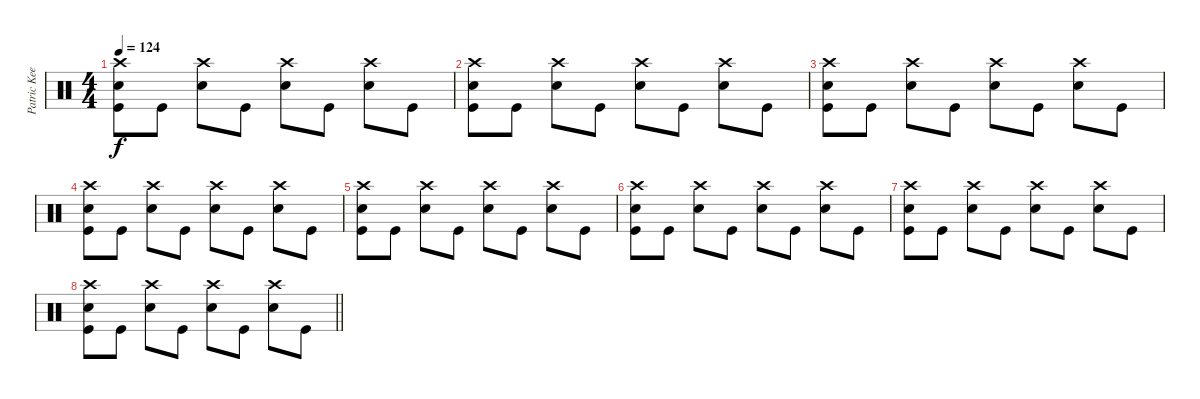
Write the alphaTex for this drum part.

\track ("Patric Keeler (Drums)" "Patric Kee") {instrument percussion}
\staff {score}
\articulation defaults
\ts (4 4)
\tempo 124
\clef neutral
\ks c
("Crash high (hit)" "Snare (hit) 2" "Kick (hit)").8{dy f} "Kick (hit)".8 ("Crash high (hit)" "Snare (hit) 2").8 "Kick (hit)".8 ("Crash high (hit)" "Snare (hit) 2").8 "Kick (hit)".8 ("Crash high (hit)" "Snare (hit) 2").8 "Kick (hit)".8 |
("Crash high (hit)" "Snare (hit) 2" "Kick (hit)").8 "Kick (hit)".8 ("Crash high (hit)" "Snare (hit) 2").8 "Kick (hit)".8 ("Crash high (hit)" "Snare (hit) 2").8 "Kick (hit)".8 ("Crash high (hit)" "Snare (hit) 2").8 "Kick (hit)".8 |
("Crash high (hit)" "Snare (hit) 2" "Kick (hit)").8 "Kick (hit)".8 ("Crash high (hit)" "Snare (hit) 2").8 "Kick (hit)".8 ("Crash high (hit)" "Snare (hit) 2").8 "Kick (hit)".8 ("Crash high (hit)" "Snare (hit) 2").8 "Kick (hit)".8 |
("Crash high (hit)" "Snare (hit) 2" "Kick (hit)").8 "Kick (hit)".8 ("Crash high (hit)" "Snare (hit) 2").8 "Kick (hit)".8 ("Crash high (hit)" "Snare (hit) 2").8 "Kick (hit)".8 ("Crash high (hit)" "Snare (hit) 2").8 "Kick (hit)".8 |
("Crash high (hit)" "Snare (hit) 2" "Kick (hit)").8 "Kick (hit)".8 ("Crash high (hit)" "Snare (hit) 2").8 "Kick (hit)".8 ("Crash high (hit)" "Snare (hit) 2").8 "Kick (hit)".8 ("Crash high (hit)" "Snare (hit) 2").8 "Kick (hit)".8 |
("Crash high (hit)" "Snare (hit) 2" "Kick (hit)").8 "Kick (hit)".8 ("Crash high (hit)" "Snare (hit) 2").8 "Kick (hit)".8 ("Crash high (hit)" "Snare (hit) 2").8 "Kick (hit)".8 ("Crash high (hit)" "Snare (hit) 2").8 "Kick (hit)".8 |
("Crash high (hit)" "Snare (hit) 2" "Kick (hit)").8 "Kick (hit)".8 ("Crash high (hit)" "Snare (hit) 2").8 "Kick (hit)".8 ("Crash high (hit)" "Snare (hit) 2").8 "Kick (hit)".8 ("Crash high (hit)" "Snare (hit) 2").8 "Kick (hit)".8 |
\barLineRight lightlight
("Crash high (hit)" "Snare (hit) 2" "Kick (hit)").8 "Kick (hit)".8 ("Crash high (hit)" "Snare (hit) 2").8 "Kick (hit)".8 ("Crash high (hit)" "Snare (hit) 2").8 "Kick (hit)".8 ("Crash high (hit)" "Snare (hit) 2").8 "Kick (hit)".8
